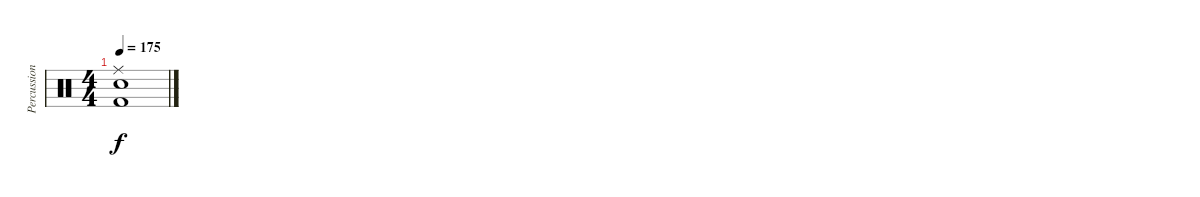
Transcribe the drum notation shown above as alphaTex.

\track ("Percussion" "Percussion") {instrument percussion}
\staff {score}
\articulation defaults
\ts (4 4)
\tempo 175
\clef neutral
\ks c
("Ride (middle)" "Snare (hit)"{t} "Kick (hit) 2"{t}).1{dy f}
